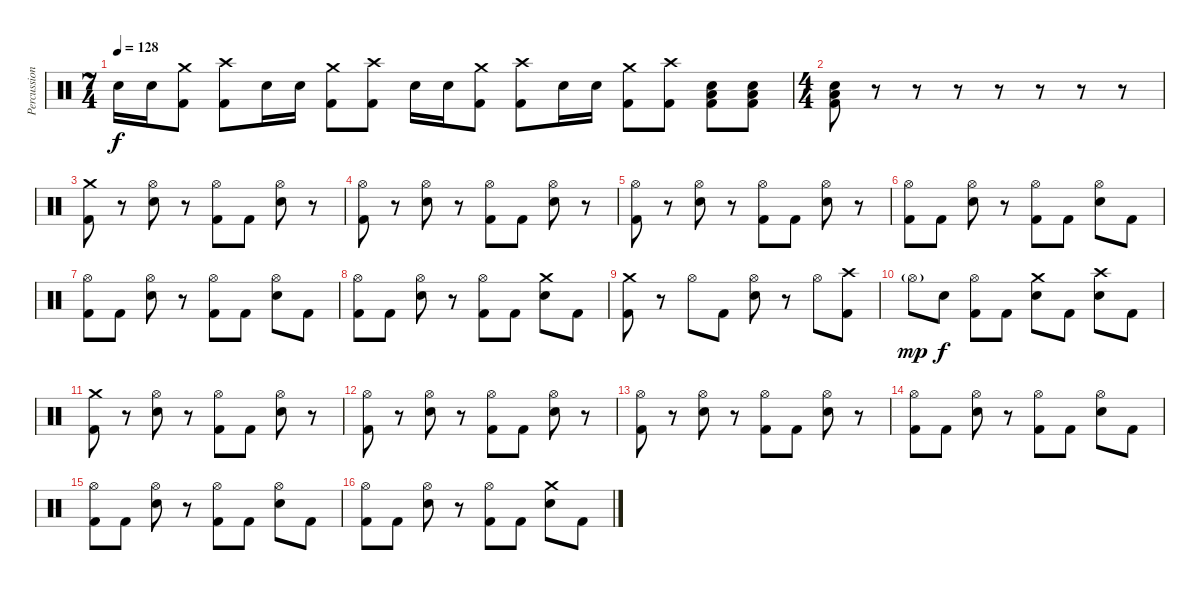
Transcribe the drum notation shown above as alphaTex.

\track ("Percussion" "Percussion") {instrument percussion}
\staff {score}
\articulation defaults
\ts (7 4)
\tempo 128
\clef neutral
\ks c "Snare (hit) 2".16{dy f} "Snare (hit) 2".16
("Crash medium (hit)" "Kick (hit) 2").8 ("Crash high (hit)" "Kick (hit) 2").8 "Snare (hit) 2".16 "Snare (hit) 2".16 ("Crash medium (hit)" "Kick (hit) 2").8 ("Crash high (hit)" "Kick (hit) 2").8 "Snare (hit) 2".16 "Snare (hit) 2".16 ("Crash medium (hit)" "Kick (hit) 2").8 ("Crash high (hit)" "Kick (hit) 2").8 "Snare (hit) 2".16 "Snare (hit) 2".16 ("Crash medium (hit)" "Kick (hit) 2").8 ("Crash high (hit)" "Kick (hit) 2").8 ("Kick (hit) 2" "Low Floor Tom (hit)" "Snare (hit) 2").8 ("Kick (hit) 2" "Low Floor Tom (hit)" "Snare (hit) 2").8 |
\ts (4 4)
("Kick (hit) 2" "Low Floor Tom (hit)" "Snare (hit) 2").8 r.8 r.8 r.8 r.8 r.8 r.8 r.8 |
("Crash medium (hit)" "Kick (hit) 2").8 r.8 ("Hi-Hat (open)" "Snare (hit) 2").8 r.8 ("Hi-Hat (open)" "Kick (hit) 2").8 "Kick (hit) 2".8 ("Hi-Hat (open)" "Snare (hit) 2").8 r.8 |
("Hi-Hat (open)" "Kick (hit) 2").8 r.8 ("Hi-Hat (open)" "Snare (hit) 2").8 r.8 ("Hi-Hat (open)" "Kick (hit) 2").8 "Kick (hit) 2".8 ("Hi-Hat (open)" "Snare (hit) 2").8 r.8 |
("Hi-Hat (open)" "Kick (hit) 2").8 r.8 ("Hi-Hat (open)" "Snare (hit) 2").8 r.8 ("Hi-Hat (open)" "Kick (hit) 2").8 "Kick (hit) 2".8 ("Hi-Hat (open)" "Snare (hit) 2").8 r.8 |
("Hi-Hat (open)" "Kick (hit) 2").8 "Kick (hit) 2".8 ("Hi-Hat (open)" "Snare (hit) 2").8 r.8 ("Hi-Hat (open)" "Kick (hit) 2").8 "Kick (hit) 2".8 ("Hi-Hat (open)" "Snare (hit) 2").8 "Kick (hit) 2".8 |
("Hi-Hat (open)" "Kick (hit) 2").8 "Kick (hit) 2".8 ("Hi-Hat (open)" "Snare (hit) 2").8 r.8 ("Hi-Hat (open)" "Kick (hit) 2").8 "Kick (hit) 2".8 ("Hi-Hat (open)" "Snare (hit) 2").8 "Kick (hit) 2".8 |
("Hi-Hat (open)" "Kick (hit) 2").8 "Kick (hit) 2".8 ("Hi-Hat (open)" "Snare (hit) 2").8 r.8 ("Hi-Hat (open)" "Kick (hit) 2").8 "Kick (hit) 2".8 ("Crash medium (hit)" "Snare (hit) 2").8 "Kick (hit) 2".8 |
("Crash medium (hit)" "Kick (hit) 2").8 r.8 "Hi-Hat (open)".8 "Kick (hit) 2".8 ("Hi-Hat (open)" "Snare (hit) 2").8 r.8 "Hi-Hat (open)".8 ("Crash high (hit)" "Kick (hit) 2").8 |
"Hi-Hat (open)"{g}.8{dy mp} "Snare (hit) 2".8{dy f} ("Hi-Hat (open)" "Kick (hit) 2").8 "Kick (hit) 2".8 ("Crash medium (hit)" "Snare (hit) 2").8 "Kick (hit) 2".8 ("Crash high (hit)" "Snare (hit) 2").8 "Kick (hit) 2".8 |
("Crash medium (hit)" "Kick (hit) 2").8 r.8 ("Hi-Hat (open)" "Snare (hit) 2").8 r.8 ("Hi-Hat (open)" "Kick (hit) 2").8 "Kick (hit) 2".8 ("Hi-Hat (open)" "Snare (hit) 2").8 r.8 |
("Hi-Hat (open)" "Kick (hit) 2").8 r.8 ("Hi-Hat (open)" "Snare (hit) 2").8 r.8 ("Hi-Hat (open)" "Kick (hit) 2").8 "Kick (hit) 2".8 ("Hi-Hat (open)" "Snare (hit) 2").8 r.8 |
("Hi-Hat (open)" "Kick (hit) 2").8 r.8 ("Hi-Hat (open)" "Snare (hit) 2").8 r.8 ("Hi-Hat (open)" "Kick (hit) 2").8 "Kick (hit) 2".8 ("Hi-Hat (open)" "Snare (hit) 2").8 r.8 |
("Hi-Hat (open)" "Kick (hit) 2").8 "Kick (hit) 2".8 ("Hi-Hat (open)" "Snare (hit) 2").8 r.8 ("Hi-Hat (open)" "Kick (hit) 2").8 "Kick (hit) 2".8 ("Hi-Hat (open)" "Snare (hit) 2").8 "Kick (hit) 2".8 |
("Hi-Hat (open)" "Kick (hit) 2").8 "Kick (hit) 2".8 ("Hi-Hat (open)" "Snare (hit) 2").8 r.8 ("Hi-Hat (open)" "Kick (hit) 2").8 "Kick (hit) 2".8 ("Hi-Hat (open)" "Snare (hit) 2").8 "Kick (hit) 2".8 |
("Hi-Hat (open)" "Kick (hit) 2").8 "Kick (hit) 2".8 ("Hi-Hat (open)" "Snare (hit) 2").8 r.8 ("Hi-Hat (open)" "Kick (hit) 2").8 "Kick (hit) 2".8 ("Crash medium (hit)" "Snare (hit) 2").8 "Kick (hit) 2".8
